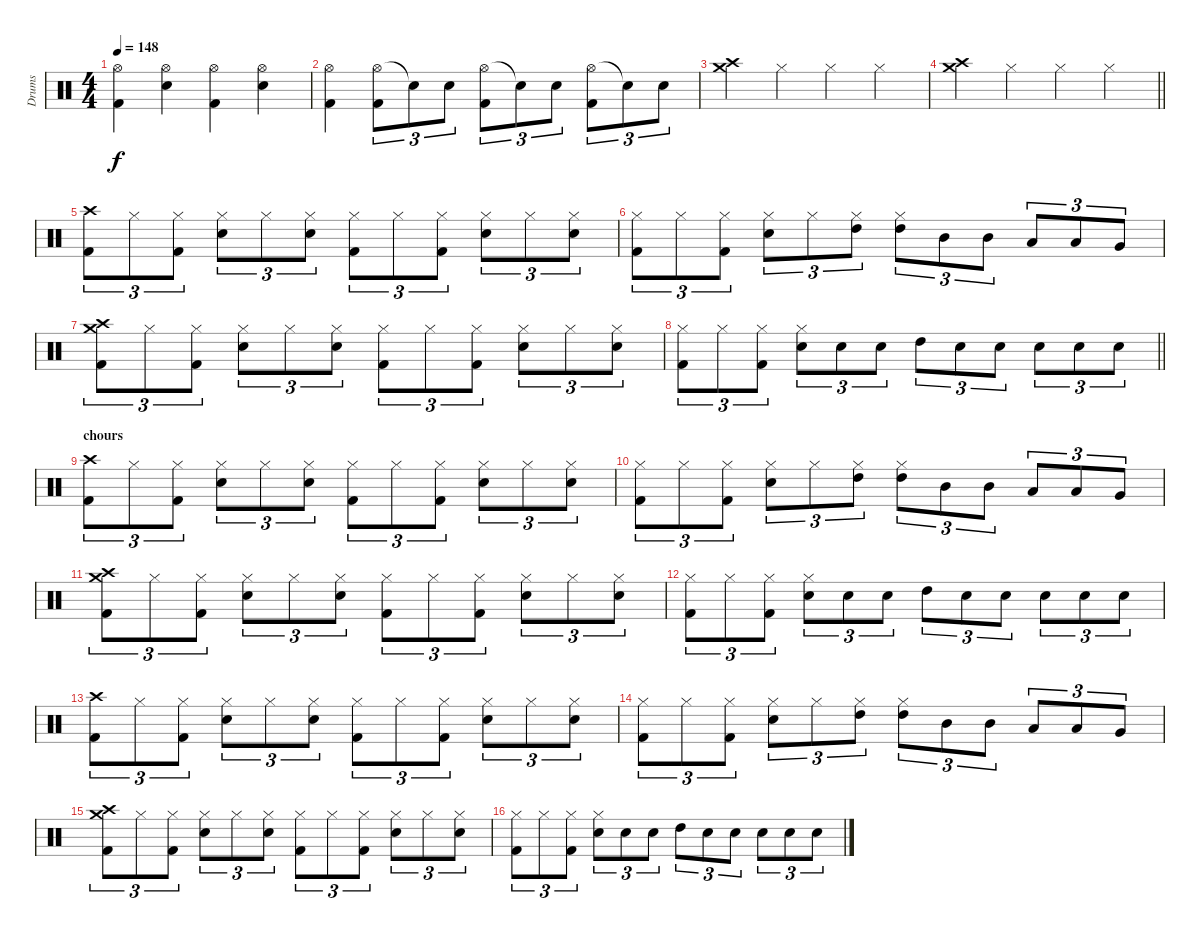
\track ("Drums" "Drums") {instrument percussion}
\staff {score}
\articulation defaults
\ts (4 4)
\tempo 148
\clef neutral
\ks c
("Hi-Hat (open)" "Kick (hit) 2").4{dy f} ("Hi-Hat (open)" "Snare (hit) 2").4 ("Hi-Hat (open)" "Kick (hit) 2").4 ("Hi-Hat (open)" "Snare (hit) 2").4 |
("Hi-Hat (open)" "Kick (hit) 2").4 ("Hi-Hat (open)" "Kick (hit) 2").8{tu (3 2)} "Snare (hit)"{t}.8{tu (3 2)} "Snare (hit) 2".8{tu (3 2)} ("Hi-Hat (open)" "Kick (hit) 2").8{tu (3 2)} "Snare (hit)"{t}.8{tu (3 2)} "Snare (hit) 2".8{tu (3 2)} ("Hi-Hat (open)" "Kick (hit) 2").8{tu (3 2)} "Snare (hit) 2"{t}.8{tu (3 2)} "Snare (hit) 2".8{tu (3 2)} |
("Crash medium (hit)" "Crash high (hit)").4 "Hi-Hat (closed)".4 "Hi-Hat (closed)".4 "Hi-Hat (closed)".4 |
\barLineRight lightlight
("Crash medium (hit)" "Crash high (hit)").4 "Hi-Hat (closed)".4 "Hi-Hat (closed)".4 "Hi-Hat (closed)".4 |
("Crash high (hit)" "Kick (hit) 2").8{tu (3 2)} "Hi-Hat (closed)".8{tu (3 2)} ("Hi-Hat (closed)" "Kick (hit) 2").8{tu (3 2)} ("Hi-Hat (closed)" "Snare (hit) 2").8{tu (3 2)} "Hi-Hat (closed)".8{tu (3 2)} ("Hi-Hat (closed)" "Snare (hit) 2").8{tu (3 2)} ("Hi-Hat (closed)" "Kick (hit) 2").8{tu (3 2)} "Hi-Hat (closed)".8{tu (3 2)} ("Hi-Hat (closed)" "Kick (hit) 2").8{tu (3 2)} ("Hi-Hat (closed)" "Snare (hit) 2").8{tu (3 2)} "Hi-Hat (closed)".8{tu (3 2)} ("Hi-Hat (closed)" "Snare (hit) 2").8{tu (3 2)} |
("Hi-Hat (closed)" "Kick (hit) 2").8{tu (3 2)} "Hi-Hat (closed)".8{tu (3 2)} ("Hi-Hat (closed)" "Kick (hit) 2").8{tu (3 2)} ("Hi-Hat (closed)" "Snare (hit) 2").8{tu (3 2)} "Hi-Hat (closed)".8{tu (3 2)} ("Hi-Hat (closed)" "High Tom (hit)").8{tu (3 2)} ("Hi-Hat (closed)" "High Tom (hit)").8{tu (3 2)} "Mid Tom (hit)".8{tu (3 2)} "Mid Tom (hit)".8{tu (3 2)} "Low Tom (hit)".8{tu (3 2)} "Low Tom (hit)".8{tu (3 2)} "Very Low Tom (hit)".8{tu (3 2)} |
("Crash high (hit)" "Crash medium (hit)" "Kick (hit) 2").8{tu (3 2)} "Hi-Hat (closed)".8{tu (3 2)} ("Hi-Hat (closed)" "Kick (hit) 2").8{tu (3 2)} ("Hi-Hat (closed)" "Snare (hit) 2").8{tu (3 2)} "Hi-Hat (closed)".8{tu (3 2)} ("Hi-Hat (closed)" "Snare (hit) 2").8{tu (3 2)} ("Hi-Hat (closed)" "Kick (hit) 2").8{tu (3 2)} "Hi-Hat (closed)".8{tu (3 2)} ("Hi-Hat (closed)" "Kick (hit) 2").8{tu (3 2)} ("Hi-Hat (closed)" "Snare (hit) 2").8{tu (3 2)} "Hi-Hat (closed)".8{tu (3 2)} ("Hi-Hat (closed)" "Snare (hit) 2").8{tu (3 2)} |
\barLineRight lightlight
("Hi-Hat (closed)" "Kick (hit) 2").8{tu (3 2)} "Hi-Hat (closed)".8{tu (3 2)} ("Hi-Hat (closed)" "Kick (hit) 2").8{tu (3 2)} ("Hi-Hat (closed)" "Snare (hit) 2").8{tu (3 2)} "Snare (hit) 2".8{tu (3 2)} "Snare (hit) 2".8{tu (3 2)} "High Tom (hit)".8{tu (3 2)} "Snare (hit) 2".8{tu (3 2)} "Snare (hit) 2".8{tu (3 2)} "Snare (hit) 2".8{tu (3 2)} "Snare (hit) 2".8{tu (3 2)} "Snare (hit) 2".8{tu (3 2)} |
\section ("" "chours")
("Crash high (hit)" "Kick (hit) 2").8{tu (3 2)} "Hi-Hat (closed)".8{tu (3 2)} ("Hi-Hat (closed)" "Kick (hit) 2").8{tu (3 2)} ("Hi-Hat (closed)" "Snare (hit) 2").8{tu (3 2)} "Hi-Hat (closed)".8{tu (3 2)} ("Hi-Hat (closed)" "Snare (hit) 2").8{tu (3 2)} ("Hi-Hat (closed)" "Kick (hit) 2").8{tu (3 2)} "Hi-Hat (closed)".8{tu (3 2)} ("Hi-Hat (closed)" "Kick (hit) 2").8{tu (3 2)} ("Hi-Hat (closed)" "Snare (hit) 2").8{tu (3 2)} "Hi-Hat (closed)".8{tu (3 2)} ("Hi-Hat (closed)" "Snare (hit) 2").8{tu (3 2)} |
("Hi-Hat (closed)" "Kick (hit) 2").8{tu (3 2)} "Hi-Hat (closed)".8{tu (3 2)} ("Hi-Hat (closed)" "Kick (hit) 2").8{tu (3 2)} ("Hi-Hat (closed)" "Snare (hit) 2").8{tu (3 2)} "Hi-Hat (closed)".8{tu (3 2)} ("Hi-Hat (closed)" "High Tom (hit)").8{tu (3 2)} ("Hi-Hat (closed)" "High Tom (hit)").8{tu (3 2)} "Mid Tom (hit)".8{tu (3 2)} "Mid Tom (hit)".8{tu (3 2)} "Low Tom (hit)".8{tu (3 2)} "Low Tom (hit)".8{tu (3 2)} "Very Low Tom (hit)".8{tu (3 2)} |
("Crash high (hit)" "Crash medium (hit)" "Kick (hit) 2").8{tu (3 2)} "Hi-Hat (closed)".8{tu (3 2)} ("Hi-Hat (closed)" "Kick (hit) 2").8{tu (3 2)} ("Hi-Hat (closed)" "Snare (hit) 2").8{tu (3 2)} "Hi-Hat (closed)".8{tu (3 2)} ("Hi-Hat (closed)" "Snare (hit) 2").8{tu (3 2)} ("Hi-Hat (closed)" "Kick (hit) 2").8{tu (3 2)} "Hi-Hat (closed)".8{tu (3 2)} ("Hi-Hat (closed)" "Kick (hit) 2").8{tu (3 2)} ("Hi-Hat (closed)" "Snare (hit) 2").8{tu (3 2)} "Hi-Hat (closed)".8{tu (3 2)} ("Hi-Hat (closed)" "Snare (hit) 2").8{tu (3 2)} |
("Hi-Hat (closed)" "Kick (hit) 2").8{tu (3 2)} "Hi-Hat (closed)".8{tu (3 2)} ("Hi-Hat (closed)" "Kick (hit) 2").8{tu (3 2)} ("Hi-Hat (closed)" "Snare (hit) 2").8{tu (3 2)} "Snare (hit) 2".8{tu (3 2)} "Snare (hit) 2".8{tu (3 2)} "High Tom (hit)".8{tu (3 2)} "Snare (hit) 2".8{tu (3 2)} "Snare (hit) 2".8{tu (3 2)} "Snare (hit) 2".8{tu (3 2)} "Snare (hit) 2".8{tu (3 2)} "Snare (hit) 2".8{tu (3 2)} |
("Crash high (hit)" "Kick (hit) 2").8{tu (3 2)} "Hi-Hat (closed)".8{tu (3 2)} ("Hi-Hat (closed)" "Kick (hit) 2").8{tu (3 2)} ("Hi-Hat (closed)" "Snare (hit) 2").8{tu (3 2)} "Hi-Hat (closed)".8{tu (3 2)} ("Hi-Hat (closed)" "Snare (hit) 2").8{tu (3 2)} ("Hi-Hat (closed)" "Kick (hit) 2").8{tu (3 2)} "Hi-Hat (closed)".8{tu (3 2)} ("Hi-Hat (closed)" "Kick (hit) 2").8{tu (3 2)} ("Hi-Hat (closed)" "Snare (hit) 2").8{tu (3 2)} "Hi-Hat (closed)".8{tu (3 2)} ("Hi-Hat (closed)" "Snare (hit) 2").8{tu (3 2)} |
("Hi-Hat (closed)" "Kick (hit) 2").8{tu (3 2)} "Hi-Hat (closed)".8{tu (3 2)} ("Hi-Hat (closed)" "Kick (hit) 2").8{tu (3 2)} ("Hi-Hat (closed)" "Snare (hit) 2").8{tu (3 2)} "Hi-Hat (closed)".8{tu (3 2)} ("Hi-Hat (closed)" "High Tom (hit)").8{tu (3 2)} ("Hi-Hat (closed)" "High Tom (hit)").8{tu (3 2)} "Mid Tom (hit)".8{tu (3 2)} "Mid Tom (hit)".8{tu (3 2)} "Low Tom (hit)".8{tu (3 2)} "Low Tom (hit)".8{tu (3 2)} "Very Low Tom (hit)".8{tu (3 2)} |
("Crash high (hit)" "Crash medium (hit)" "Kick (hit) 2").8{tu (3 2)} "Hi-Hat (closed)".8{tu (3 2)} ("Hi-Hat (closed)" "Kick (hit) 2").8{tu (3 2)} ("Hi-Hat (closed)" "Snare (hit) 2").8{tu (3 2)} "Hi-Hat (closed)".8{tu (3 2)} ("Hi-Hat (closed)" "Snare (hit) 2").8{tu (3 2)} ("Hi-Hat (closed)" "Kick (hit) 2").8{tu (3 2)} "Hi-Hat (closed)".8{tu (3 2)} ("Hi-Hat (closed)" "Kick (hit) 2").8{tu (3 2)} ("Hi-Hat (closed)" "Snare (hit) 2").8{tu (3 2)} "Hi-Hat (closed)".8{tu (3 2)} ("Hi-Hat (closed)" "Snare (hit) 2").8{tu (3 2)} |
("Hi-Hat (closed)" "Kick (hit) 2").8{tu (3 2)} "Hi-Hat (closed)".8{tu (3 2)} ("Hi-Hat (closed)" "Kick (hit) 2").8{tu (3 2)} ("Hi-Hat (closed)" "Snare (hit) 2").8{tu (3 2)} "Snare (hit) 2".8{tu (3 2)} "Snare (hit) 2".8{tu (3 2)} "High Tom (hit)".8{tu (3 2)} "Snare (hit) 2".8{tu (3 2)} "Snare (hit) 2".8{tu (3 2)} "Snare (hit) 2".8{tu (3 2)} "Snare (hit) 2".8{tu (3 2)} "Snare (hit) 2".8{tu (3 2)}
